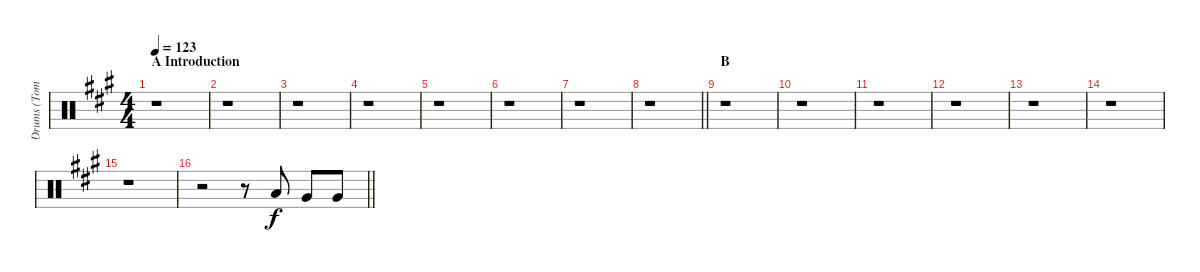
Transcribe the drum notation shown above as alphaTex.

\track ("Drums (Toms" "Drums (Tom") {instrument percussion}
\staff {score}
\articulation defaults
\ts (4 4)
\section ("" "A Introduction")
\tempo 123
\clef neutral
\ks a
r.1{dy f} |
r.1 |
r.1 |
r.1 |
r.1 |
r.1 |
r.1 |
\barLineRight lightlight
r.1 |
\section ("" "B")
r.1 |
r.1 |
r.1 |
r.1 |
r.1 |
r.1 |
r.1 |
\barLineRight lightlight
r.2 r.8 "Low Tom (hit)".8 "Very Low Tom (hit)".8 "Very Low Tom (hit)".8
